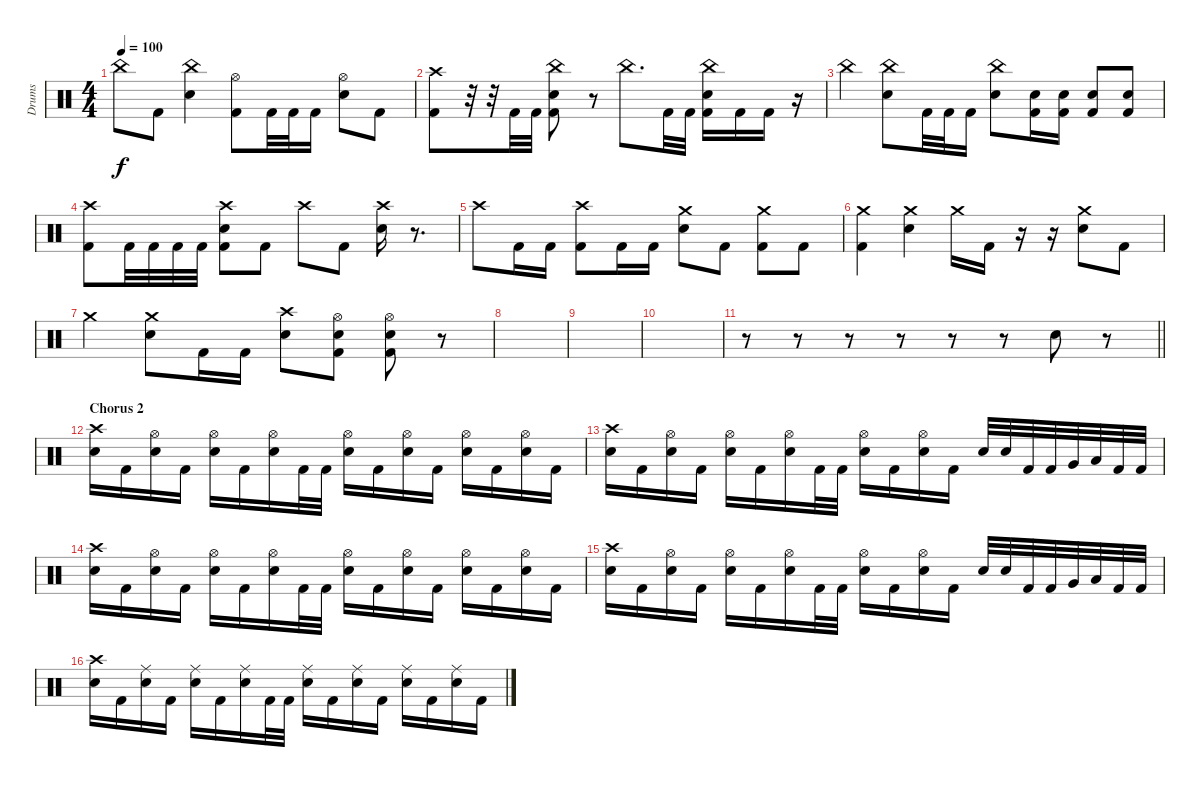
\track ("Drums" "Drums") {instrument percussion}
\staff {score}
\articulation defaults
\ts (4 4)
\tempo 100
\clef neutral
\ks c "China (hit)".8{dy f} "Kick (hit) 2".8
("Electric Snare (hit)" "China (hit)").4 ("Kick (hit) 2" "Hi-Hat (open)").8 "Kick (hit) 2".32 "Kick (hit) 2".32 "Kick (hit) 2".16 ("Electric Snare (hit)" "Hi-Hat (open)").8 "Kick (hit) 2".8 |
("Kick (hit) 2" "Crash high (hit)").8 r.32 r.32 "Kick (hit) 2".32 "Kick (hit) 2".32 ("Kick (hit) 2" "China (hit)" "Electric Snare (hit)").8 r.8 "China (hit)".8{d} "Kick (hit) 2".32 "Kick (hit) 2".32 ("Kick (hit) 2" "China (hit)" "Electric Snare (hit)").16 "Kick (hit) 2".16 "Kick (hit) 2".16 r.16 |
"China (hit)".4 ("Electric Snare (hit)" "China (hit)").8 "Kick (hit) 2".32 "Kick (hit) 2".32 "Kick (hit) 2".16 ("Electric Snare (hit)" "China (hit)").8 ("Kick (hit) 2" "Electric Snare (hit)").16 ("Kick (hit) 2" "Electric Snare (hit)").16 ("Kick (hit) 2" "Electric Snare (hit)").8 ("Kick (hit) 2" "Electric Snare (hit)").8 |
("Kick (hit) 2" "Crash high (hit)").8 "Kick (hit) 2".32 "Kick (hit) 2".32 "Kick (hit) 2".32 "Kick (hit) 2".32 ("Kick (hit) 2" "Crash high (hit)" "Electric Snare (hit)").8 "Kick (hit) 2".8 "Crash high (hit)".8 "Kick (hit) 2".8 ("Electric Snare (hit)" "Crash high (hit)").16 r.8{d} |
"Crash high (hit)".8 "Kick (hit) 2".16 "Kick (hit) 2".16 ("Kick (hit) 2" "Crash high (hit)").8 "Kick (hit) 2".16 "Kick (hit) 2".16 ("Electric Snare (hit)" "Crash medium (hit)").8 "Kick (hit) 2".8 ("Kick (hit) 2" "Crash medium (hit)").8 "Kick (hit) 2".8 |
("Kick (hit) 2" "Crash medium (hit)").4 ("Electric Snare (hit)" "Crash medium (hit)").4 "Crash medium (hit)".16 "Kick (hit) 2".16 r.16 r.16 ("Electric Snare (hit)" "Crash medium (hit)").8 "Kick (hit) 2".8 |
"Crash medium (hit)".4 ("Electric Snare (hit)" "Crash medium (hit)").8 "Kick (hit) 2".16 "Kick (hit) 2".16 ("Crash high (hit)" "Electric Snare (hit)").8 ("Hi-Hat (open)" "Kick (hit) 2" "Electric Snare (hit)").8 ("Hi-Hat (open)" "Kick (hit) 2" "Electric Snare (hit)").8 r.8 |
|
|
|
\barLineRight lightlight
r.8 r.8 r.8 r.8 r.8 r.8 "Electric Snare (hit)".8 r.8 |
\section ("" "Chorus 2")
("Electric Snare (hit)" "Crash high (hit)").16 "Kick (hit) 2".16 ("Electric Snare (hit)" "Hi-Hat (open)").16 "Kick (hit) 2".16 ("Electric Snare (hit)" "Hi-Hat (open)").16 "Kick (hit) 2".16 ("Electric Snare (hit)" "Hi-Hat (open)").16 "Kick (hit) 2".32 "Kick (hit) 2".32 ("Electric Snare (hit)" "Hi-Hat (open)").16 "Kick (hit) 2".16 ("Electric Snare (hit)" "Hi-Hat (open)").16 "Kick (hit) 2".16 ("Electric Snare (hit)" "Hi-Hat (open)").16 "Kick (hit) 2".16 ("Electric Snare (hit)" "Hi-Hat (open)").16 "Kick (hit) 2".16 |
("Electric Snare (hit)" "Crash high (hit)").16 "Kick (hit) 2".16 ("Electric Snare (hit)" "Hi-Hat (open)").16 "Kick (hit) 2".16 ("Electric Snare (hit)" "Hi-Hat (open)").16 "Kick (hit) 2".16 ("Electric Snare (hit)" "Hi-Hat (open)").16 "Kick (hit) 2".32 "Kick (hit) 2".32 ("Electric Snare (hit)" "Hi-Hat (open)").16 "Kick (hit) 2".16 ("Electric Snare (hit)" "Hi-Hat (open)").16 "Kick (hit) 2".16 "Electric Snare (hit)".32 "Electric Snare (hit)".32 "Kick (hit) 2".32 "Kick (hit) 2".32 "Very Low Tom (hit)".32 "Low Floor Tom (hit)".32 "Kick (hit) 2".32 "Kick (hit) 2".32 |
("Electric Snare (hit)" "Crash high (hit)").16 "Kick (hit) 2".16 ("Electric Snare (hit)" "Hi-Hat (open)").16 "Kick (hit) 2".16 ("Electric Snare (hit)" "Hi-Hat (open)").16 "Kick (hit) 2".16 ("Electric Snare (hit)" "Hi-Hat (open)").16 "Kick (hit) 2".32 "Kick (hit) 2".32 ("Electric Snare (hit)" "Hi-Hat (open)").16 "Kick (hit) 2".16 ("Electric Snare (hit)" "Hi-Hat (open)").16 "Kick (hit) 2".16 ("Electric Snare (hit)" "Hi-Hat (open)").16 "Kick (hit) 2".16 ("Electric Snare (hit)" "Hi-Hat (open)").16 "Kick (hit) 2".16 |
("Electric Snare (hit)" "Crash high (hit)").16 "Kick (hit) 2".16 ("Electric Snare (hit)" "Hi-Hat (open)").16 "Kick (hit) 2".16 ("Electric Snare (hit)" "Hi-Hat (open)").16 "Kick (hit) 2".16 ("Electric Snare (hit)" "Hi-Hat (open)").16 "Kick (hit) 2".32 "Kick (hit) 2".32 ("Electric Snare (hit)" "Hi-Hat (open)").16 "Kick (hit) 2".16 ("Electric Snare (hit)" "Hi-Hat (open)").16 "Kick (hit) 2".16 "Electric Snare (hit)".32 "Electric Snare (hit)".32 "Kick (hit) 2".32 "Kick (hit) 2".32 "Very Low Tom (hit)".32 "Low Floor Tom (hit)".32 "Kick (hit) 2".32 "Kick (hit) 2".32 |
("Electric Snare (hit)" "Crash high (hit)").16 "Kick (hit) 2".16 ("Electric Snare (hit)" "Ride (middle)").16 "Kick (hit) 2".16 ("Electric Snare (hit)" "Ride (middle)").16 "Kick (hit) 2".16 ("Electric Snare (hit)" "Ride (middle)").16 "Kick (hit) 2".32 "Kick (hit) 2".32 ("Electric Snare (hit)" "Ride (middle)").16 "Kick (hit) 2".16 ("Electric Snare (hit)" "Ride (middle)").16 "Kick (hit) 2".16 ("Electric Snare (hit)" "Ride (middle)").16 "Kick (hit) 2".16 ("Electric Snare (hit)" "Ride (middle)").16 "Kick (hit) 2".16
